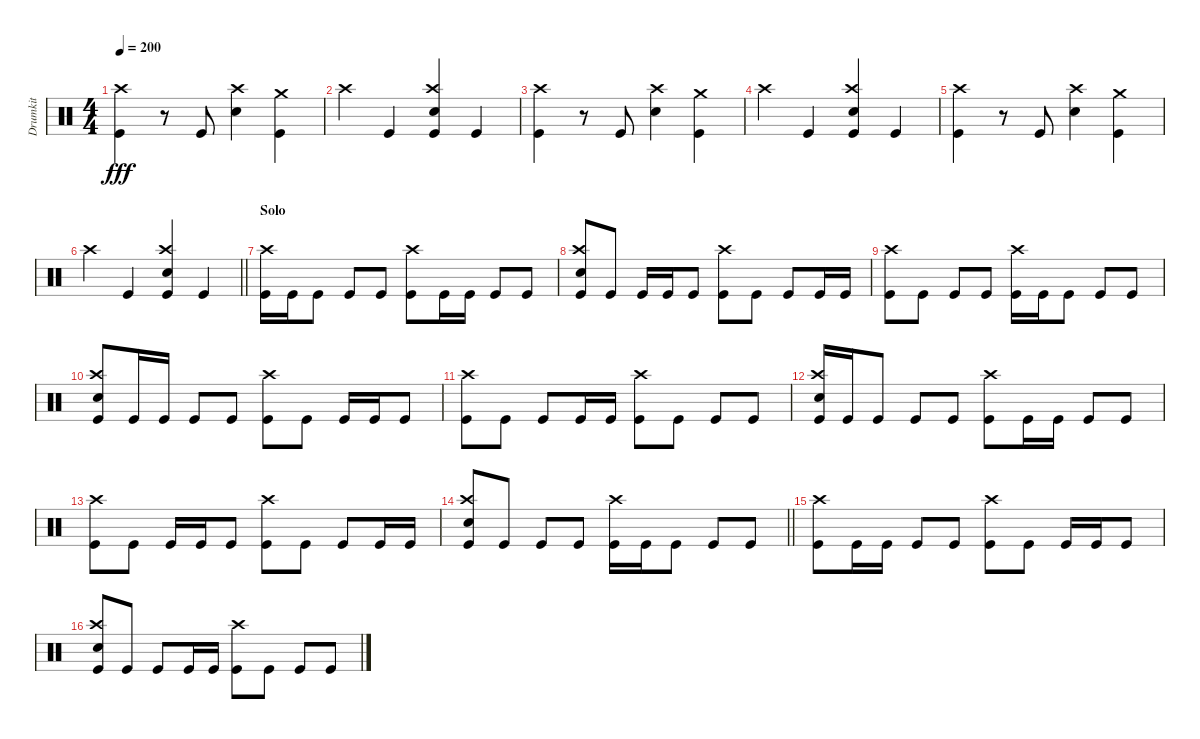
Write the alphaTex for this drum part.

\track ("Drumkit" "Drumkit") {instrument percussion}
\staff {score}
\articulation defaults
\ts (4 4)
\tempo 200
\clef neutral
\ks c
("Kick (hit)" "Crash high (hit)").4{dy fff} r.8 "Kick (hit)".8 ("Crash high (hit)" "Snare (hit) 2").4 ("Crash medium (hit)" "Kick (hit)").4 |
"Crash high (hit)".4 "Kick (hit)".4 ("Snare (hit) 2" "Crash high (hit)" "Kick (hit)").4 "Kick (hit)".4 |
("Kick (hit)" "Crash high (hit)").4 r.8 "Kick (hit)".8 ("Crash high (hit)" "Snare (hit) 2").4 ("Crash medium (hit)" "Kick (hit)").4 |
"Crash high (hit)".4 "Kick (hit)".4 ("Snare (hit) 2" "Crash high (hit)" "Kick (hit)").4 "Kick (hit)".4 |
("Kick (hit)" "Crash high (hit)").4 r.8 "Kick (hit)".8 ("Crash high (hit)" "Snare (hit) 2").4 ("Crash medium (hit)" "Kick (hit)").4 |
\barLineRight lightlight "Crash high (hit)".4 "Kick (hit)".4
("Snare (hit) 2" "Crash high (hit)" "Kick (hit)").4 "Kick (hit)".4 |
\section ("" "Solo")
("Kick (hit)" "Crash high (hit)").16 "Kick (hit)".16 "Kick (hit)".8 "Kick (hit)".8 "Kick (hit)".8 ("Kick (hit)" "Crash high (hit)").8 "Kick (hit)".16 "Kick (hit)".16 "Kick (hit)".8 "Kick (hit)".8 |
("Kick (hit)" "Snare (hit) 2" "Crash high (hit)").8 "Kick (hit)".8 "Kick (hit)".16 "Kick (hit)".16 "Kick (hit)".8 ("Kick (hit)" "Crash high (hit)").8 "Kick (hit)".8 "Kick (hit)".8 "Kick (hit)".16 "Kick (hit)".16 |
("Kick (hit)" "Crash high (hit)").8 "Kick (hit)".8 "Kick (hit)".8 "Kick (hit)".8 ("Kick (hit)" "Crash high (hit)").16 "Kick (hit)".16 "Kick (hit)".8 "Kick (hit)".8 "Kick (hit)".8 |
("Kick (hit)" "Crash high (hit)" "Snare (hit) 2").8 "Kick (hit)".16 "Kick (hit)".16 "Kick (hit)".8 "Kick (hit)".8 ("Kick (hit)" "Crash high (hit)").8 "Kick (hit)".8 "Kick (hit)".16 "Kick (hit)".16 "Kick (hit)".8 |
("Kick (hit)" "Crash high (hit)").8 "Kick (hit)".8 "Kick (hit)".8 "Kick (hit)".16 "Kick (hit)".16 ("Kick (hit)" "Crash high (hit)").8 "Kick (hit)".8 "Kick (hit)".8 "Kick (hit)".8 |
("Kick (hit)" "Crash high (hit)" "Snare (hit) 2").16 "Kick (hit)".16 "Kick (hit)".8 "Kick (hit)".8 "Kick (hit)".8 ("Kick (hit)" "Crash high (hit)").8 "Kick (hit)".16 "Kick (hit)".16 "Kick (hit)".8 "Kick (hit)".8 |
("Kick (hit)" "Crash high (hit)").8 "Kick (hit)".8 "Kick (hit)".16 "Kick (hit)".16 "Kick (hit)".8 ("Kick (hit)" "Crash high (hit)").8 "Kick (hit)".8 "Kick (hit)".8 "Kick (hit)".16 "Kick (hit)".16 |
\barLineRight lightlight
("Kick (hit)" "Crash high (hit)" "Snare (hit) 2").8 "Kick (hit)".8 "Kick (hit)".8 "Kick (hit)".8 ("Kick (hit)" "Crash high (hit)").16 "Kick (hit)".16 "Kick (hit)".8 "Kick (hit)".8 "Kick (hit)".8 |
("Kick (hit)" "Crash high (hit)").8 "Kick (hit)".16 "Kick (hit)".16 "Kick (hit)".8 "Kick (hit)".8 ("Kick (hit)" "Crash high (hit)").8 "Kick (hit)".8 "Kick (hit)".16 "Kick (hit)".16 "Kick (hit)".8 |
("Kick (hit)" "Crash high (hit)" "Snare (hit) 2").8 "Kick (hit)".8 "Kick (hit)".8 "Kick (hit)".16 "Kick (hit)".16 ("Kick (hit)" "Crash high (hit)").8 "Kick (hit)".8 "Kick (hit)".8 "Kick (hit)".8
